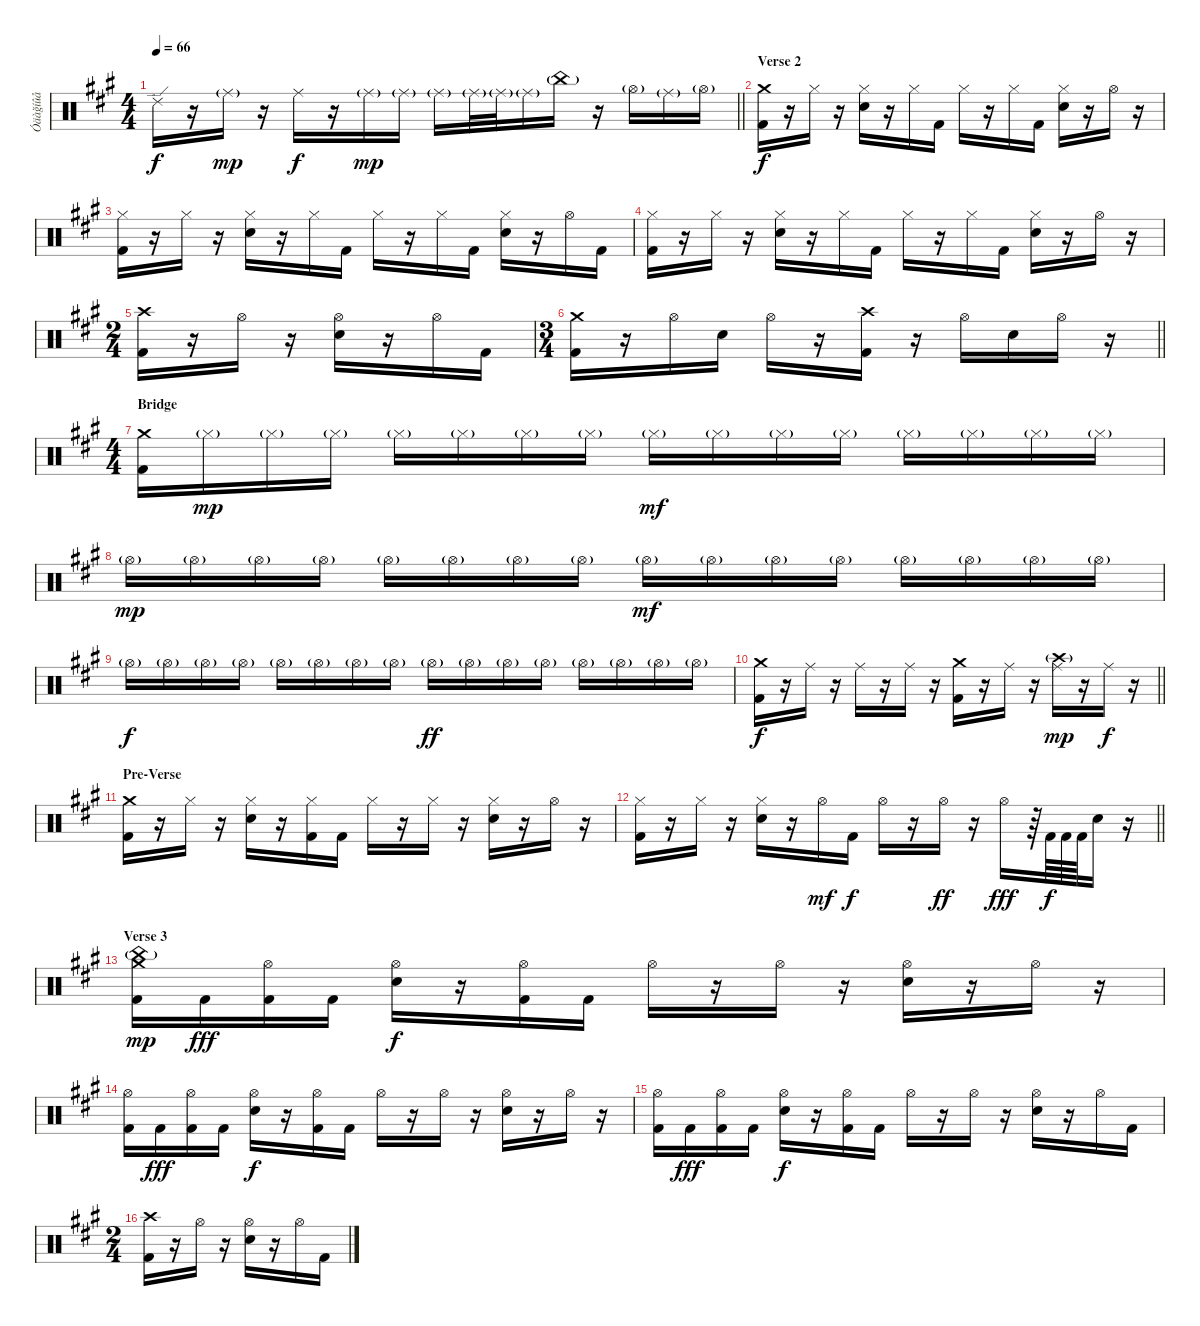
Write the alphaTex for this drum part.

\track ("Óäàğíûå" "Óäàğíûå") {instrument percussion}
\staff {score}
\articulation defaults
\ts (4 4)
\tempo 66
\clef neutral
\barLineRight lightlight
\ks a "Ride (edge) 2".16{dy f}
r.16 "Ride (middle)"{g}.16{dy mp} r.16 "Ride (middle)".16{dy f} r.16 "Ride (middle)"{g}.16{dy mp} "Ride (middle)"{g}.16 "Ride (middle)"{g}.16 "Ride (middle)"{g}.32 "Ride (middle)"{g}.32 "Ride (middle)"{g}.16 "China (hit)"{g}.16 r.16 "Hi-Hat (open)"{g}.16 "Ride (middle)"{g}.16 "Hi-Hat (open)"{g}.16 |
\section ("" "Verse 2")
("Crash medium (hit)" "Kick (hit) 2").16{dy f} r.16 "Hi-Hat (closed)".16 r.16 ("Hi-Hat (closed)" "Electric Snare (hit)").16 r.16 "Hi-Hat (closed)".16 "Kick (hit) 2".16 "Hi-Hat (closed)".16 r.16 "Hi-Hat (closed)".16 "Kick (hit) 2".16 ("Hi-Hat (closed)" "Electric Snare (hit)").16 r.16 "Hi-Hat (open)".16 r.16 |
("Hi-Hat (closed)" "Kick (hit) 2").16 r.16 "Hi-Hat (closed)".16 r.16 ("Hi-Hat (closed)" "Electric Snare (hit)").16 r.16 "Hi-Hat (closed)".16 "Kick (hit) 2".16 "Hi-Hat (closed)".16 r.16 "Hi-Hat (closed)".16 "Kick (hit) 2".16 ("Hi-Hat (closed)" "Electric Snare (hit)").16 r.16 "Hi-Hat (open)".16 "Kick (hit) 2".16 |
("Hi-Hat (closed)" "Kick (hit) 2").16 r.16 "Hi-Hat (closed)".16 r.16 ("Hi-Hat (closed)" "Electric Snare (hit)").16 r.16 "Hi-Hat (closed)".16 "Kick (hit) 2".16 "Hi-Hat (closed)".16 r.16 "Hi-Hat (closed)".16 "Kick (hit) 2".16 ("Hi-Hat (closed)" "Electric Snare (hit)").16 r.16 "Hi-Hat (open)".16 r.16 |
\ts (2 4)
("Crash high (hit)" "Kick (hit) 2").16 r.16 "Hi-Hat (open)".16 r.16 ("Hi-Hat (open)" "Electric Snare (hit)").16 r.16 "Hi-Hat (open)".16 "Kick (hit) 2".16 |
\ts (3 4)
\barLineRight lightlight
("Crash medium (hit)" "Kick (hit) 2").16 r.16 "Hi-Hat (open)".16 "Electric Snare (hit)".16 "Hi-Hat (open)".16 r.16 ("Crash high (hit)" "Kick (hit) 2").16 r.16 "Hi-Hat (open)".16 "Electric Snare (hit)".16 "Hi-Hat (open)".16 r.16 |
\ts (4 4)
\section ("" "Bridge")
("Crash medium (hit)" "Kick (hit) 2").16 "Hi-Hat (closed)"{g}.16{dy mp} "Hi-Hat (closed)"{g}.16 "Hi-Hat (closed)"{g}.16 "Hi-Hat (closed)"{g}.16 "Hi-Hat (closed)"{g}.16 "Hi-Hat (closed)"{g}.16 "Hi-Hat (closed)"{g}.16 "Hi-Hat (closed)"{g}.16{dy mf} "Hi-Hat (closed)"{g}.16 "Hi-Hat (closed)"{g}.16 "Hi-Hat (closed)"{g}.16 "Hi-Hat (closed)"{g}.16 "Hi-Hat (closed)"{g}.16 "Hi-Hat (closed)"{g}.16 "Hi-Hat (closed)"{g}.16 |
"Hi-Hat (open)"{g}.16{dy mp} "Hi-Hat (open)"{g}.16 "Hi-Hat (open)"{g}.16 "Hi-Hat (open)"{g}.16 "Hi-Hat (open)"{g}.16 "Hi-Hat (open)"{g}.16 "Hi-Hat (open)"{g}.16 "Hi-Hat (open)"{g}.16 "Hi-Hat (open)"{g}.16{dy mf} "Hi-Hat (open)"{g}.16 "Hi-Hat (open)"{g}.16 "Hi-Hat (open)"{g}.16 "Hi-Hat (open)"{g}.16 "Hi-Hat (open)"{g}.16 "Hi-Hat (open)"{g}.16 "Hi-Hat (open)"{g}.16 |
"Hi-Hat (open)"{g}.16{dy f} "Hi-Hat (open)"{g}.16 "Hi-Hat (open)"{g}.16 "Hi-Hat (open)"{g}.16 "Hi-Hat (open)"{g}.16 "Hi-Hat (open)"{g}.16 "Hi-Hat (open)"{g}.16 "Hi-Hat (open)"{g}.16 "Hi-Hat (open)"{g}.16{dy ff} "Hi-Hat (open)"{g}.16 "Hi-Hat (open)"{g}.16 "Hi-Hat (open)"{g}.16 "Hi-Hat (open)"{g}.16 "Hi-Hat (open)"{g}.16 "Hi-Hat (open)"{g}.16 "Hi-Hat (open)"{g}.16 |
\barLineRight lightlight
("Crash medium (hit)" "Kick (hit) 2").16{dy f} r.16 "Ride (middle)".16 r.16 "Ride (middle)".16 r.16 "Ride (middle)".16 r.16 ("Crash medium (hit)" "Kick (hit) 2").16 r.16 "Ride (middle)".16 r.16 ("Ride (middle)" "Crash high (hit)"{g}).16{dy mp} r.16 "Ride (middle)".16{dy f} r.16 |
\section ("" "Pre-Verse")
("Crash medium (hit)" "Kick (hit) 2").16 r.16 "Hi-Hat (closed)".16 r.16 ("Hi-Hat (closed)" "Electric Snare (hit)").16 r.16 ("Hi-Hat (closed)" "Kick (hit) 2").16 "Kick (hit) 2".16 "Hi-Hat (closed)".16 r.16 "Hi-Hat (closed)".16 r.16 ("Hi-Hat (closed)" "Electric Snare (hit)").16 r.16 "Hi-Hat (open)".16 r.16 |
\barLineRight lightlight
("Hi-Hat (closed)" "Kick (hit) 2").16 r.16 "Hi-Hat (closed)".16 r.16 ("Hi-Hat (closed)" "Electric Snare (hit)").16 r.16 "Hi-Hat (open)".16{dy mf} "Kick (hit) 2".16{dy f} "Hi-Hat (open)".16 r.16 "Hi-Hat (open)".16{dy ff} r.16 "Hi-Hat (open)".16{dy fff} r.64 "Kick (hit) 2".64{dy f} "Kick (hit) 2".64 "Kick (hit) 2".64 "Electric Snare (hit)".16 r.16 |
\section ("" "Verse 3")
("Crash medium (hit)" "China (hit)"{g} "Kick (hit) 2").16{dy mp} "Kick (hit) 2".16{dy fff} ("Hi-Hat (open)" "Kick (hit) 2").16 "Kick (hit) 2".16 ("Hi-Hat (open)" "Electric Snare (hit)").16{dy f} r.16 ("Hi-Hat (open)" "Kick (hit) 2").16 "Kick (hit) 2".16 "Hi-Hat (open)".16 r.16 "Hi-Hat (open)".16 r.16 ("Hi-Hat (open)" "Electric Snare (hit)").16 r.16 "Hi-Hat (open)".16 r.16 |
("Hi-Hat (open)" "Kick (hit) 2").16 "Kick (hit) 2".16{dy fff} ("Hi-Hat (open)" "Kick (hit) 2").16 "Kick (hit) 2".16 ("Hi-Hat (open)" "Electric Snare (hit)").16{dy f} r.16 ("Hi-Hat (open)" "Kick (hit) 2").16 "Kick (hit) 2".16 "Hi-Hat (open)".16 r.16 "Hi-Hat (open)".16 r.16 ("Hi-Hat (open)" "Electric Snare (hit)").16 r.16 "Hi-Hat (open)".16 r.16 |
("Hi-Hat (open)" "Kick (hit) 2").16 "Kick (hit) 2".16{dy fff} ("Hi-Hat (open)" "Kick (hit) 2").16 "Kick (hit) 2".16 ("Hi-Hat (open)" "Electric Snare (hit)").16{dy f} r.16 ("Hi-Hat (open)" "Kick (hit) 2").16 "Kick (hit) 2".16 "Hi-Hat (open)".16 r.16 "Hi-Hat (open)".16 r.16 ("Hi-Hat (open)" "Electric Snare (hit)").16 r.16 "Hi-Hat (open)".16 "Kick (hit) 2".16 |
\ts (2 4)
("Crash high (hit)" "Kick (hit) 2").16 r.16 "Hi-Hat (open)".16 r.16 ("Hi-Hat (open)" "Electric Snare (hit)").16 r.16 "Hi-Hat (open)".16 "Kick (hit) 2".16
